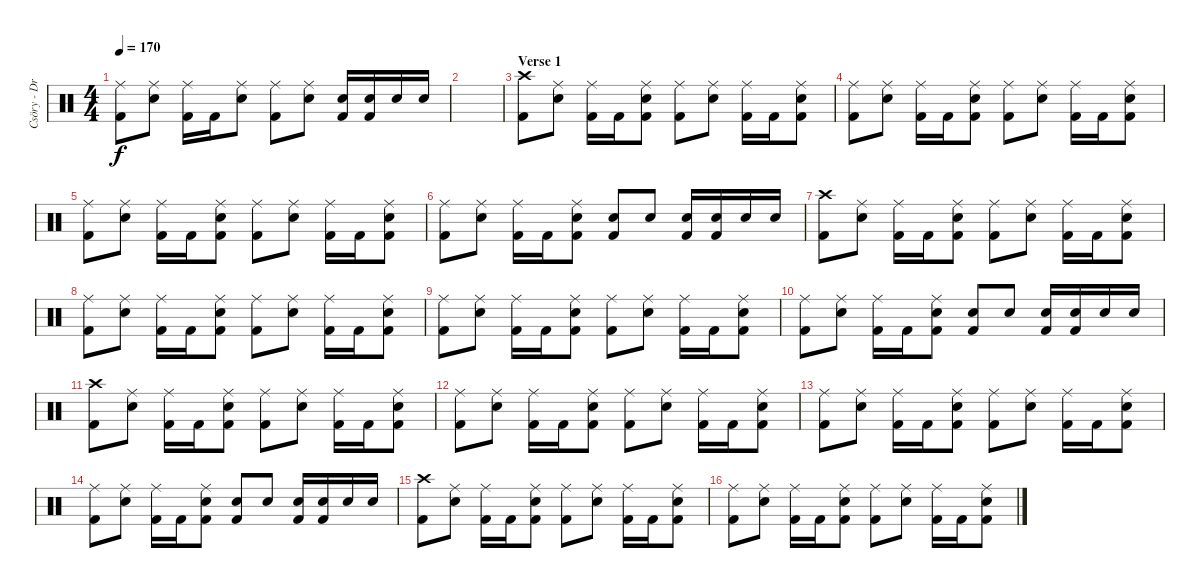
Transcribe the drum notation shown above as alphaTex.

\track ("Csöry - DrumZ" "Csöry - Dr") {instrument percussion}
\staff {score}
\articulation defaults
\ts (4 4)
\tempo 170
\clef neutral
\ks c
("Ride (middle)" "Kick (hit) 2").8{dy f} ("Ride (middle)" "Snare (hit) 2").8 ("Ride (middle)" "Kick (hit) 2").16 "Kick (hit) 2".16 ("Ride (middle)" "Snare (hit) 2").8 ("Ride (middle)" "Kick (hit) 2").8 ("Ride (middle)" "Snare (hit) 2").8 ("Snare (hit) 2" "Kick (hit) 2").16 ("Snare (hit) 2" "Kick (hit) 2").16 "Snare (hit) 2".16 "Snare (hit) 2".16 |
|
\section ("" "Verse 1")
("Crash high (hit)" "Kick (hit) 2").8 ("Ride (middle)" "Snare (hit) 2").8 ("Ride (middle)" "Kick (hit) 2").16 "Kick (hit) 2".16 ("Ride (middle)" "Snare (hit) 2" "Kick (hit) 2").8 ("Ride (middle)" "Kick (hit) 2").8 ("Ride (middle)" "Snare (hit) 2").8 ("Ride (middle)" "Kick (hit) 2").16 "Kick (hit) 2".16 ("Ride (middle)" "Snare (hit) 2" "Kick (hit) 2").8 |
("Ride (middle)" "Kick (hit) 2").8 ("Ride (middle)" "Snare (hit) 2").8 ("Ride (middle)" "Kick (hit) 2").16 "Kick (hit) 2".16 ("Ride (middle)" "Snare (hit) 2" "Kick (hit) 2").8 ("Ride (middle)" "Kick (hit) 2").8 ("Ride (middle)" "Snare (hit) 2").8 ("Ride (middle)" "Kick (hit) 2").16 "Kick (hit) 2".16 ("Ride (middle)" "Snare (hit) 2" "Kick (hit) 2").8 |
("Ride (middle)" "Kick (hit) 2").8 ("Ride (middle)" "Snare (hit) 2").8 ("Ride (middle)" "Kick (hit) 2").16 "Kick (hit) 2".16 ("Ride (middle)" "Snare (hit) 2" "Kick (hit) 2").8 ("Ride (middle)" "Kick (hit) 2").8 ("Ride (middle)" "Snare (hit) 2").8 ("Ride (middle)" "Kick (hit) 2").16 "Kick (hit) 2".16 ("Ride (middle)" "Snare (hit) 2" "Kick (hit) 2").8 |
("Ride (middle)" "Kick (hit) 2").8 ("Ride (middle)" "Snare (hit) 2").8 ("Ride (middle)" "Kick (hit) 2").16 "Kick (hit) 2".16 ("Ride (middle)" "Snare (hit) 2" "Kick (hit) 2").8 ("Snare (hit) 2" "Kick (hit) 2").8 "Snare (hit) 2".8 ("Snare (hit) 2" "Kick (hit) 2").16 ("Snare (hit) 2" "Kick (hit) 2").16 "Snare (hit) 2".16 "Snare (hit) 2".16 |
("Crash high (hit)" "Kick (hit) 2").8 ("Ride (middle)" "Snare (hit) 2").8 ("Ride (middle)" "Kick (hit) 2").16 "Kick (hit) 2".16 ("Ride (middle)" "Snare (hit) 2" "Kick (hit) 2").8 ("Ride (middle)" "Kick (hit) 2").8 ("Ride (middle)" "Snare (hit) 2").8 ("Ride (middle)" "Kick (hit) 2").16 "Kick (hit) 2".16 ("Ride (middle)" "Snare (hit) 2" "Kick (hit) 2").8 |
("Ride (middle)" "Kick (hit) 2").8 ("Ride (middle)" "Snare (hit) 2").8 ("Ride (middle)" "Kick (hit) 2").16 "Kick (hit) 2".16 ("Ride (middle)" "Snare (hit) 2" "Kick (hit) 2").8 ("Ride (middle)" "Kick (hit) 2").8 ("Ride (middle)" "Snare (hit) 2").8 ("Ride (middle)" "Kick (hit) 2").16 "Kick (hit) 2".16 ("Ride (middle)" "Snare (hit) 2" "Kick (hit) 2").8 |
("Ride (middle)" "Kick (hit) 2").8 ("Ride (middle)" "Snare (hit) 2").8 ("Ride (middle)" "Kick (hit) 2").16 "Kick (hit) 2".16 ("Ride (middle)" "Snare (hit) 2" "Kick (hit) 2").8 ("Ride (middle)" "Kick (hit) 2").8 ("Ride (middle)" "Snare (hit) 2").8 ("Ride (middle)" "Kick (hit) 2").16 "Kick (hit) 2".16 ("Ride (middle)" "Snare (hit) 2" "Kick (hit) 2").8 |
("Ride (middle)" "Kick (hit) 2").8 ("Ride (middle)" "Snare (hit) 2").8 ("Ride (middle)" "Kick (hit) 2").16 "Kick (hit) 2".16 ("Ride (middle)" "Snare (hit) 2" "Kick (hit) 2").8 ("Snare (hit) 2" "Kick (hit) 2").8 "Snare (hit) 2".8 ("Snare (hit) 2" "Kick (hit) 2").16 ("Snare (hit) 2" "Kick (hit) 2").16 "Snare (hit) 2".16 "Snare (hit) 2".16 |
("Crash high (hit)" "Kick (hit) 2").8 ("Ride (middle)" "Snare (hit) 2").8 ("Ride (middle)" "Kick (hit) 2").16 "Kick (hit) 2".16 ("Ride (middle)" "Snare (hit) 2" "Kick (hit) 2").8 ("Ride (middle)" "Kick (hit) 2").8 ("Ride (middle)" "Snare (hit) 2").8 ("Ride (middle)" "Kick (hit) 2").16 "Kick (hit) 2".16 ("Ride (middle)" "Snare (hit) 2" "Kick (hit) 2").8 |
("Ride (middle)" "Kick (hit) 2").8 ("Ride (middle)" "Snare (hit) 2").8 ("Ride (middle)" "Kick (hit) 2").16 "Kick (hit) 2".16 ("Ride (middle)" "Snare (hit) 2" "Kick (hit) 2").8 ("Ride (middle)" "Kick (hit) 2").8 ("Ride (middle)" "Snare (hit) 2").8 ("Ride (middle)" "Kick (hit) 2").16 "Kick (hit) 2".16 ("Ride (middle)" "Snare (hit) 2" "Kick (hit) 2").8 |
("Ride (middle)" "Kick (hit) 2").8 ("Ride (middle)" "Snare (hit) 2").8 ("Ride (middle)" "Kick (hit) 2").16 "Kick (hit) 2".16 ("Ride (middle)" "Snare (hit) 2" "Kick (hit) 2").8 ("Ride (middle)" "Kick (hit) 2").8 ("Ride (middle)" "Snare (hit) 2").8 ("Ride (middle)" "Kick (hit) 2").16 "Kick (hit) 2".16 ("Ride (middle)" "Snare (hit) 2" "Kick (hit) 2").8 |
("Ride (middle)" "Kick (hit) 2").8 ("Ride (middle)" "Snare (hit) 2").8 ("Ride (middle)" "Kick (hit) 2").16 "Kick (hit) 2".16 ("Ride (middle)" "Snare (hit) 2" "Kick (hit) 2").8 ("Snare (hit) 2" "Kick (hit) 2").8 "Snare (hit) 2".8 ("Snare (hit) 2" "Kick (hit) 2").16 ("Snare (hit) 2" "Kick (hit) 2").16 "Snare (hit) 2".16 "Snare (hit) 2".16 |
("Crash high (hit)" "Kick (hit) 2").8 ("Ride (middle)" "Snare (hit) 2").8 ("Ride (middle)" "Kick (hit) 2").16 "Kick (hit) 2".16 ("Ride (middle)" "Snare (hit) 2" "Kick (hit) 2").8 ("Ride (middle)" "Kick (hit) 2").8 ("Ride (middle)" "Snare (hit) 2").8 ("Ride (middle)" "Kick (hit) 2").16 "Kick (hit) 2".16 ("Ride (middle)" "Snare (hit) 2" "Kick (hit) 2").8 |
("Ride (middle)" "Kick (hit) 2").8 ("Ride (middle)" "Snare (hit) 2").8 ("Ride (middle)" "Kick (hit) 2").16 "Kick (hit) 2".16 ("Ride (middle)" "Snare (hit) 2" "Kick (hit) 2").8 ("Ride (middle)" "Kick (hit) 2").8 ("Ride (middle)" "Snare (hit) 2").8 ("Ride (middle)" "Kick (hit) 2").16 "Kick (hit) 2".16 ("Ride (middle)" "Snare (hit) 2" "Kick (hit) 2").8
